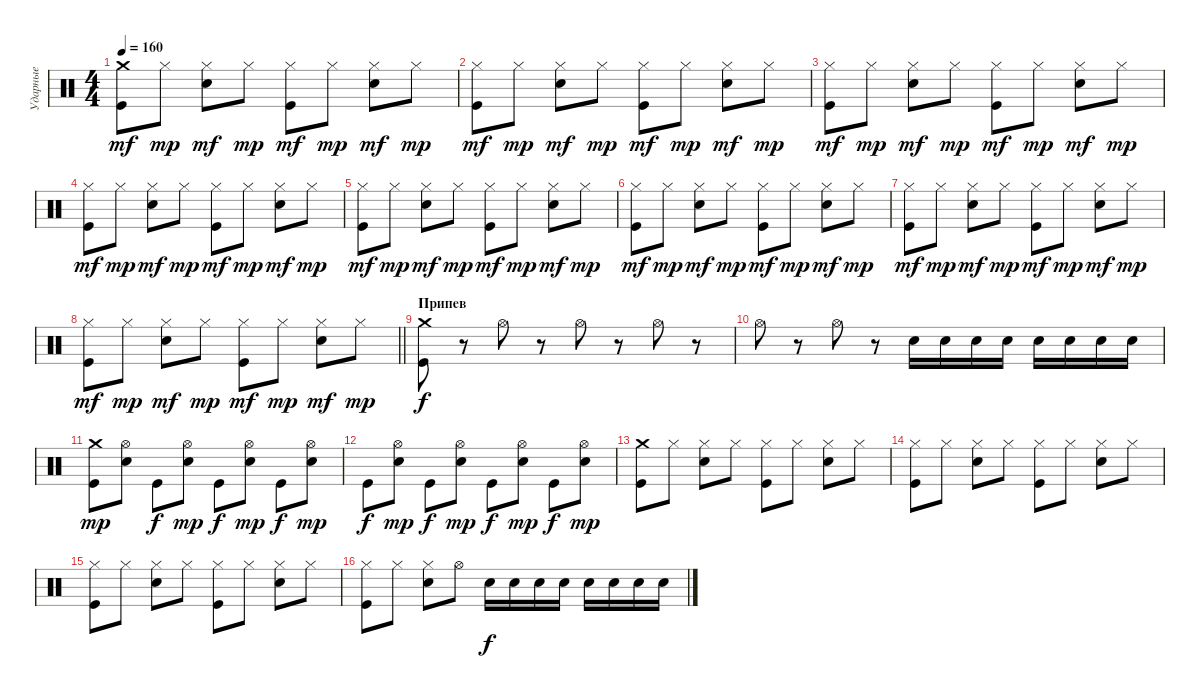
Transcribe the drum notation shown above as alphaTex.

\track ("Ударные" "Ударные") {instrument percussion}
\staff {score}
\articulation defaults
\ts (4 4)
\tempo 160
\clef neutral
\ks c
("Crash medium (hit)" "Kick (hit)").8{dy mf} "Hi-Hat (closed)".8{dy mp} ("Hi-Hat (closed)" "Electric Snare (hit)").8{dy mf} "Hi-Hat (closed)".8{dy mp} ("Hi-Hat (closed)" "Kick (hit)").8{dy mf} "Hi-Hat (closed)".8{dy mp} ("Hi-Hat (closed)" "Electric Snare (hit)").8{dy mf} "Hi-Hat (closed)".8{dy mp} |
("Hi-Hat (closed)" "Kick (hit)").8{dy mf} "Hi-Hat (closed)".8{dy mp} ("Hi-Hat (closed)" "Electric Snare (hit)").8{dy mf} "Hi-Hat (closed)".8{dy mp} ("Hi-Hat (closed)" "Kick (hit)").8{dy mf} "Hi-Hat (closed)".8{dy mp} ("Hi-Hat (closed)" "Electric Snare (hit)").8{dy mf} "Hi-Hat (closed)".8{dy mp} |
("Hi-Hat (closed)" "Kick (hit)").8{dy mf} "Hi-Hat (closed)".8{dy mp} ("Hi-Hat (closed)" "Electric Snare (hit)").8{dy mf} "Hi-Hat (closed)".8{dy mp} ("Hi-Hat (closed)" "Kick (hit)").8{dy mf} "Hi-Hat (closed)".8{dy mp} ("Hi-Hat (closed)" "Electric Snare (hit)").8{dy mf} "Hi-Hat (closed)".8{dy mp} |
("Hi-Hat (closed)" "Kick (hit)").8{dy mf} "Hi-Hat (closed)".8{dy mp} ("Hi-Hat (closed)" "Electric Snare (hit)").8{dy mf} "Hi-Hat (closed)".8{dy mp} ("Hi-Hat (closed)" "Kick (hit)").8{dy mf} "Hi-Hat (closed)".8{dy mp} ("Hi-Hat (closed)" "Electric Snare (hit)").8{dy mf} "Hi-Hat (closed)".8{dy mp} |
("Hi-Hat (closed)" "Kick (hit)").8{dy mf} "Hi-Hat (closed)".8{dy mp} ("Hi-Hat (closed)" "Electric Snare (hit)").8{dy mf} "Hi-Hat (closed)".8{dy mp} ("Hi-Hat (closed)" "Kick (hit)").8{dy mf} "Hi-Hat (closed)".8{dy mp} ("Hi-Hat (closed)" "Electric Snare (hit)").8{dy mf} "Hi-Hat (closed)".8{dy mp} |
("Hi-Hat (closed)" "Kick (hit)").8{dy mf} "Hi-Hat (closed)".8{dy mp} ("Hi-Hat (closed)" "Electric Snare (hit)").8{dy mf} "Hi-Hat (closed)".8{dy mp} ("Hi-Hat (closed)" "Kick (hit)").8{dy mf} "Hi-Hat (closed)".8{dy mp} ("Hi-Hat (closed)" "Electric Snare (hit)").8{dy mf} "Hi-Hat (closed)".8{dy mp} |
("Hi-Hat (closed)" "Kick (hit)").8{dy mf} "Hi-Hat (closed)".8{dy mp} ("Hi-Hat (closed)" "Electric Snare (hit)").8{dy mf} "Hi-Hat (closed)".8{dy mp} ("Hi-Hat (closed)" "Kick (hit)").8{dy mf} "Hi-Hat (closed)".8{dy mp} ("Hi-Hat (closed)" "Electric Snare (hit)").8{dy mf} "Hi-Hat (closed)".8{dy mp} |
\barLineRight lightlight
("Hi-Hat (closed)" "Kick (hit)").8{dy mf} "Hi-Hat (closed)".8{dy mp} ("Hi-Hat (closed)" "Electric Snare (hit)").8{dy mf} "Hi-Hat (closed)".8{dy mp} ("Hi-Hat (closed)" "Kick (hit)").8{dy mf} "Hi-Hat (closed)".8{dy mp} ("Hi-Hat (closed)" "Electric Snare (hit)").8{dy mf} "Hi-Hat (closed)".8{dy mp} |
\section ("" "Припев")
("Crash medium (hit)" "Kick (hit)").8{dy f} r.8 "Hi-Hat (open)".8 r.8 "Hi-Hat (open)".8 r.8 "Hi-Hat (open)".8 r.8 |
"Hi-Hat (open)".8 r.8 "Hi-Hat (open)".8 r.8 "Electric Snare (hit)".16 "Electric Snare (hit)".16 "Electric Snare (hit)".16 "Electric Snare (hit)".16 "Electric Snare (hit)".16 "Electric Snare (hit)".16 "Electric Snare (hit)".16 "Electric Snare (hit)".16 |
("Crash medium (hit)" "Kick (hit)").8{dy mp} ("Hi-Hat (open)" "Electric Snare (hit)").8 "Kick (hit)".8{dy f} ("Hi-Hat (open)" "Electric Snare (hit)").8{dy mp} "Kick (hit)".8{dy f} ("Hi-Hat (open)" "Electric Snare (hit)").8{dy mp} "Kick (hit)".8{dy f} ("Hi-Hat (open)" "Electric Snare (hit)").8{dy mp} |
"Kick (hit)".8{dy f} ("Hi-Hat (open)" "Electric Snare (hit)").8{dy mp} "Kick (hit)".8{dy f} ("Hi-Hat (open)" "Electric Snare (hit)").8{dy mp} "Kick (hit)".8{dy f} ("Hi-Hat (open)" "Electric Snare (hit)").8{dy mp} "Kick (hit)".8{dy f} ("Hi-Hat (open)" "Electric Snare (hit)").8{dy mp} |
("Crash medium (hit)" "Kick (hit)").8 "Hi-Hat (closed)".8 ("Hi-Hat (closed)" "Electric Snare (hit)").8 "Hi-Hat (closed)".8 ("Hi-Hat (closed)" "Kick (hit)").8 "Hi-Hat (closed)".8 ("Hi-Hat (closed)" "Electric Snare (hit)").8 "Hi-Hat (closed)".8 |
("Hi-Hat (closed)" "Kick (hit)").8 "Hi-Hat (closed)".8 ("Hi-Hat (closed)" "Electric Snare (hit)").8 "Hi-Hat (closed)".8 ("Hi-Hat (closed)" "Kick (hit)").8 "Hi-Hat (closed)".8 ("Hi-Hat (closed)" "Electric Snare (hit)").8 "Hi-Hat (closed)".8 |
("Hi-Hat (closed)" "Kick (hit)").8 "Hi-Hat (closed)".8 ("Hi-Hat (closed)" "Electric Snare (hit)").8 "Hi-Hat (closed)".8 ("Hi-Hat (closed)" "Kick (hit)").8 "Hi-Hat (closed)".8 ("Hi-Hat (closed)" "Electric Snare (hit)").8 "Hi-Hat (closed)".8 |
("Hi-Hat (closed)" "Kick (hit)").8 "Hi-Hat (closed)".8 ("Hi-Hat (closed)" "Electric Snare (hit)").8 "Hi-Hat (open)".8 "Electric Snare (hit)".16{dy f} "Electric Snare (hit)".16 "Electric Snare (hit)".16 "Electric Snare (hit)".16 "Electric Snare (hit)".16 "Electric Snare (hit)".16 "Electric Snare (hit)".16 "Electric Snare (hit)".16
